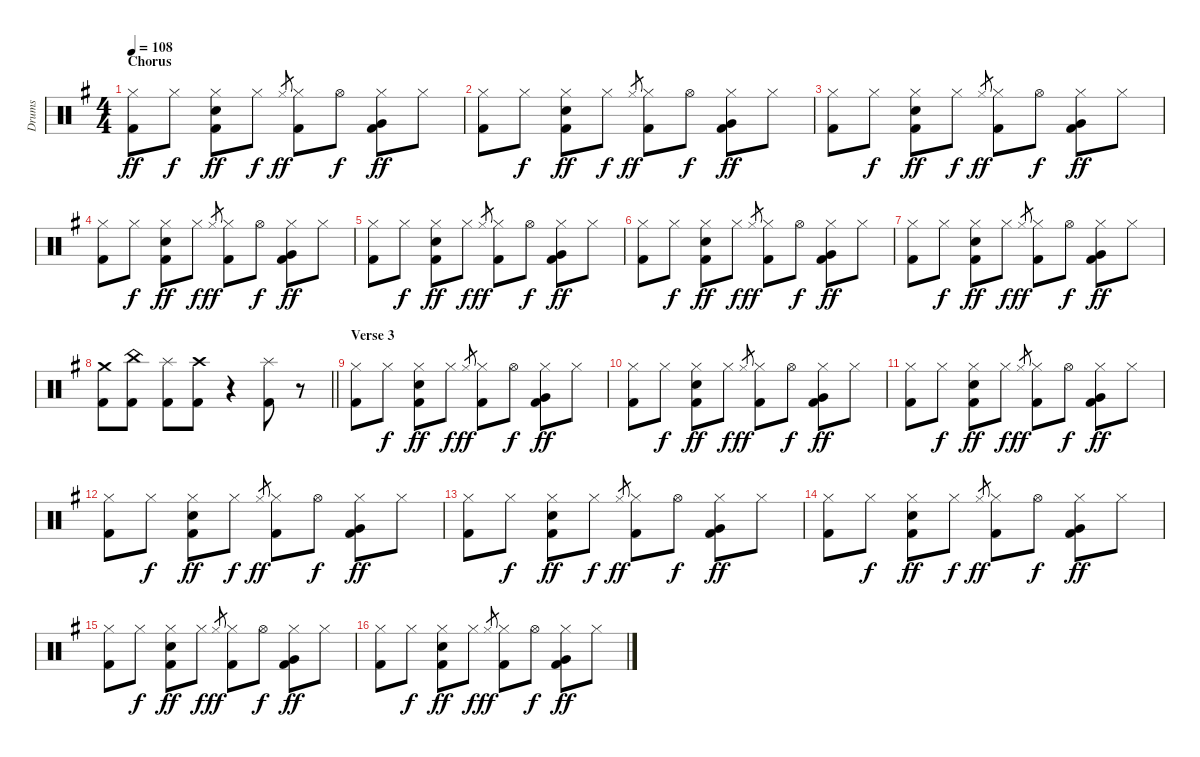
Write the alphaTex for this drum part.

\track ("Drums" "Drums") {instrument percussion}
\staff {score}
\articulation defaults
\ts (4 4)
\section ("" "Chorus")
\tempo 108
\clef neutral
\ks g
("Hi-Hat (closed)" "Kick (hit) 2").8{dy ff} "Hi-Hat (closed)".8{dy f} ("Hi-Hat (closed)" "Snare (hit) 2" "Kick (hit) 2").8{dy ff} "Hi-Hat (closed)".8{dy f} "Hi-Hat (closed)".8{gr dy ff} ("Hi-Hat (closed)" "Kick (hit) 2").8 "Hi-Hat (open)".8{dy f} ("Hi-Hat (closed)" "Very Low Tom (hit)" "Kick (hit) 2").8{dy ff} "Hi-Hat (closed)".8 |
("Hi-Hat (closed)" "Kick (hit) 2").8 "Hi-Hat (closed)".8{dy f} ("Hi-Hat (closed)" "Snare (hit) 2" "Kick (hit) 2").8{dy ff} "Hi-Hat (closed)".8{dy f} "Hi-Hat (closed)".8{gr dy ff} ("Hi-Hat (closed)" "Kick (hit) 2").8 "Hi-Hat (open)".8{dy f} ("Hi-Hat (closed)" "Very Low Tom (hit)" "Kick (hit) 2").8{dy ff} "Hi-Hat (closed)".8 |
("Hi-Hat (closed)" "Kick (hit) 2").8 "Hi-Hat (closed)".8{dy f} ("Hi-Hat (closed)" "Snare (hit) 2" "Kick (hit) 2").8{dy ff} "Hi-Hat (closed)".8{dy f} "Hi-Hat (closed)".8{gr dy ff} ("Hi-Hat (closed)" "Kick (hit) 2").8 "Hi-Hat (open)".8{dy f} ("Hi-Hat (closed)" "Very Low Tom (hit)" "Kick (hit) 2").8{dy ff} "Hi-Hat (closed)".8 |
("Hi-Hat (closed)" "Kick (hit) 2").8 "Hi-Hat (closed)".8{dy f} ("Hi-Hat (closed)" "Snare (hit) 2" "Kick (hit) 2").8{dy ff} "Hi-Hat (closed)".8{dy f} "Hi-Hat (closed)".8{gr dy ff} ("Hi-Hat (closed)" "Kick (hit) 2").8 "Hi-Hat (open)".8{dy f} ("Hi-Hat (closed)" "Very Low Tom (hit)" "Kick (hit) 2").8{dy ff} "Hi-Hat (closed)".8 |
("Hi-Hat (closed)" "Kick (hit) 2").8 "Hi-Hat (closed)".8{dy f} ("Hi-Hat (closed)" "Snare (hit) 2" "Kick (hit) 2").8{dy ff} "Hi-Hat (closed)".8{dy f} "Hi-Hat (closed)".8{gr dy ff} ("Hi-Hat (closed)" "Kick (hit) 2").8 "Hi-Hat (open)".8{dy f} ("Hi-Hat (closed)" "Very Low Tom (hit)" "Kick (hit) 2").8{dy ff} "Hi-Hat (closed)".8 |
("Hi-Hat (closed)" "Kick (hit) 2").8 "Hi-Hat (closed)".8{dy f} ("Hi-Hat (closed)" "Snare (hit) 2" "Kick (hit) 2").8{dy ff} "Hi-Hat (closed)".8{dy f} "Hi-Hat (closed)".8{gr dy ff} ("Hi-Hat (closed)" "Kick (hit) 2").8 "Hi-Hat (open)".8{dy f} ("Hi-Hat (closed)" "Very Low Tom (hit)" "Kick (hit) 2").8{dy ff} "Hi-Hat (closed)".8 |
("Hi-Hat (closed)" "Kick (hit) 2").8 "Hi-Hat (closed)".8{dy f} ("Hi-Hat (closed)" "Snare (hit) 2" "Kick (hit) 2").8{dy ff} "Hi-Hat (closed)".8{dy f} "Hi-Hat (closed)".8{gr dy ff} ("Hi-Hat (closed)" "Kick (hit) 2").8 "Hi-Hat (open)".8{dy f} ("Hi-Hat (closed)" "Very Low Tom (hit)" "Kick (hit) 2").8{dy ff} "Hi-Hat (closed)".8 |
\barLineRight lightlight
("Crash medium (hit)" "Kick (hit) 2").8 ("China (hit)" "Kick (hit) 2").8 ("Splash (hit)" "Kick (hit) 2").8 ("Crash high (hit)" "Kick (hit) 2").8 r.4 ("Splash (hit)" "Kick (hit) 2").8 r.8 |
\section ("" "Verse 3")
("Hi-Hat (closed)" "Kick (hit) 2").8 "Hi-Hat (closed)".8{dy f} ("Hi-Hat (closed)" "Snare (hit) 2" "Kick (hit) 2").8{dy ff} "Hi-Hat (closed)".8{dy f} "Hi-Hat (closed)".8{gr dy ff} ("Hi-Hat (closed)" "Kick (hit) 2").8 "Hi-Hat (open)".8{dy f} ("Hi-Hat (closed)" "Very Low Tom (hit)" "Kick (hit) 2").8{dy ff} "Hi-Hat (closed)".8 |
("Hi-Hat (closed)" "Kick (hit) 2").8 "Hi-Hat (closed)".8{dy f} ("Hi-Hat (closed)" "Snare (hit) 2" "Kick (hit) 2").8{dy ff} "Hi-Hat (closed)".8{dy f} "Hi-Hat (closed)".8{gr dy ff} ("Hi-Hat (closed)" "Kick (hit) 2").8 "Hi-Hat (open)".8{dy f} ("Hi-Hat (closed)" "Very Low Tom (hit)" "Kick (hit) 2").8{dy ff} "Hi-Hat (closed)".8 |
("Hi-Hat (closed)" "Kick (hit) 2").8 "Hi-Hat (closed)".8{dy f} ("Hi-Hat (closed)" "Snare (hit) 2" "Kick (hit) 2").8{dy ff} "Hi-Hat (closed)".8{dy f} "Hi-Hat (closed)".8{gr dy ff} ("Hi-Hat (closed)" "Kick (hit) 2").8 "Hi-Hat (open)".8{dy f} ("Hi-Hat (closed)" "Very Low Tom (hit)" "Kick (hit) 2").8{dy ff} "Hi-Hat (closed)".8 |
("Hi-Hat (closed)" "Kick (hit) 2").8 "Hi-Hat (closed)".8{dy f} ("Hi-Hat (closed)" "Snare (hit) 2" "Kick (hit) 2").8{dy ff} "Hi-Hat (closed)".8{dy f} "Hi-Hat (closed)".8{gr dy ff} ("Hi-Hat (closed)" "Kick (hit) 2").8 "Hi-Hat (open)".8{dy f} ("Hi-Hat (closed)" "Very Low Tom (hit)" "Kick (hit) 2").8{dy ff} "Hi-Hat (closed)".8 |
("Hi-Hat (closed)" "Kick (hit) 2").8 "Hi-Hat (closed)".8{dy f} ("Hi-Hat (closed)" "Snare (hit) 2" "Kick (hit) 2").8{dy ff} "Hi-Hat (closed)".8{dy f} "Hi-Hat (closed)".8{gr dy ff} ("Hi-Hat (closed)" "Kick (hit) 2").8 "Hi-Hat (open)".8{dy f} ("Hi-Hat (closed)" "Very Low Tom (hit)" "Kick (hit) 2").8{dy ff} "Hi-Hat (closed)".8 |
("Hi-Hat (closed)" "Kick (hit) 2").8 "Hi-Hat (closed)".8{dy f} ("Hi-Hat (closed)" "Snare (hit) 2" "Kick (hit) 2").8{dy ff} "Hi-Hat (closed)".8{dy f} "Hi-Hat (closed)".8{gr dy ff} ("Hi-Hat (closed)" "Kick (hit) 2").8 "Hi-Hat (open)".8{dy f} ("Hi-Hat (closed)" "Very Low Tom (hit)" "Kick (hit) 2").8{dy ff} "Hi-Hat (closed)".8 |
("Hi-Hat (closed)" "Kick (hit) 2").8 "Hi-Hat (closed)".8{dy f} ("Hi-Hat (closed)" "Snare (hit) 2" "Kick (hit) 2").8{dy ff} "Hi-Hat (closed)".8{dy f} "Hi-Hat (closed)".8{gr dy ff} ("Hi-Hat (closed)" "Kick (hit) 2").8 "Hi-Hat (open)".8{dy f} ("Hi-Hat (closed)" "Very Low Tom (hit)" "Kick (hit) 2").8{dy ff} "Hi-Hat (closed)".8 |
("Hi-Hat (closed)" "Kick (hit) 2").8 "Hi-Hat (closed)".8{dy f} ("Hi-Hat (closed)" "Snare (hit) 2" "Kick (hit) 2").8{dy ff} "Hi-Hat (closed)".8{dy f} "Hi-Hat (closed)".8{gr dy ff} ("Hi-Hat (closed)" "Kick (hit) 2").8 "Hi-Hat (open)".8{dy f} ("Hi-Hat (closed)" "Very Low Tom (hit)" "Kick (hit) 2").8{dy ff} "Hi-Hat (closed)".8
